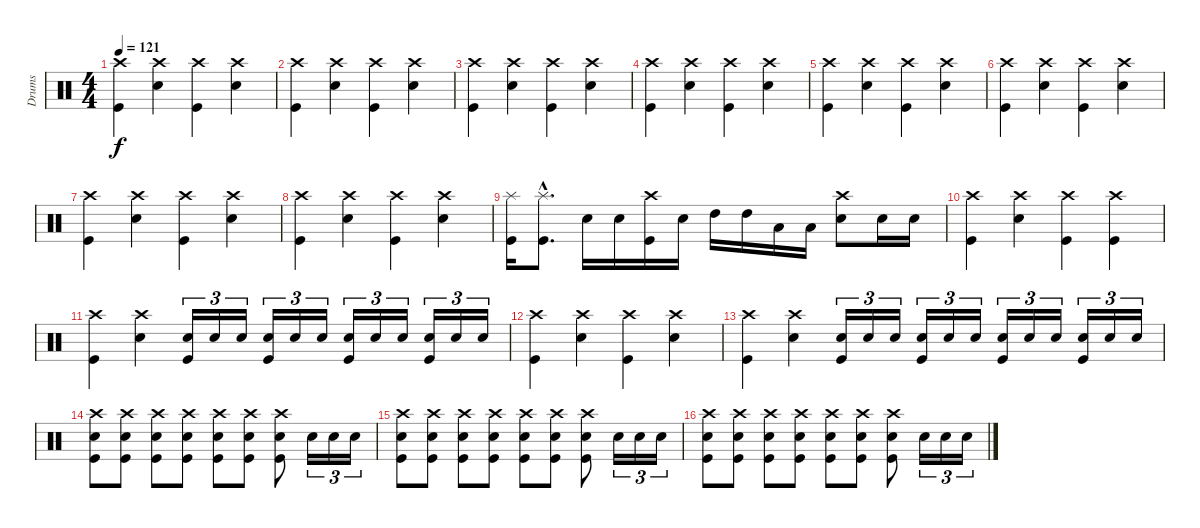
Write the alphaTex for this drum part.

\track ("Drums" "Drums") {instrument percussion}
\staff {score}
\articulation defaults
\ts (4 4)
\tempo 121
\clef neutral
\ks c
("Crash high (hit)" "Kick (hit)").4{dy f} ("Crash high (hit)" "Electric Snare (hit)").4 ("Crash high (hit)" "Kick (hit)").4 ("Crash high (hit)" "Electric Snare (hit)").4 |
("Crash high (hit)" "Kick (hit)").4 ("Crash high (hit)" "Electric Snare (hit)").4 ("Crash high (hit)" "Kick (hit)").4 ("Crash high (hit)" "Electric Snare (hit)").4 |
("Crash high (hit)" "Kick (hit)").4 ("Crash high (hit)" "Electric Snare (hit)").4 ("Crash high (hit)" "Kick (hit)").4 ("Crash high (hit)" "Electric Snare (hit)").4 |
("Crash high (hit)" "Kick (hit)").4 ("Crash high (hit)" "Electric Snare (hit)").4 ("Crash high (hit)" "Kick (hit)").4 ("Crash high (hit)" "Electric Snare (hit)").4 |
("Crash high (hit)" "Kick (hit)").4 ("Crash high (hit)" "Electric Snare (hit)").4 ("Crash high (hit)" "Kick (hit)").4 ("Crash high (hit)" "Electric Snare (hit)").4 |
("Crash high (hit)" "Kick (hit)").4 ("Crash high (hit)" "Electric Snare (hit)").4 ("Crash high (hit)" "Kick (hit)").4 ("Crash high (hit)" "Electric Snare (hit)").4 |
("Crash high (hit)" "Kick (hit)").4 ("Crash high (hit)" "Electric Snare (hit)").4 ("Crash high (hit)" "Kick (hit)").4 ("Crash high (hit)" "Electric Snare (hit)").4 |
("Crash high (hit)" "Kick (hit)").4 ("Crash high (hit)" "Electric Snare (hit)").4 ("Crash high (hit)" "Kick (hit)").4 ("Crash high (hit)" "Electric Snare (hit)").4 |
("Splash (hit)" "Kick (hit)").16 ("Splash (hit)"{hac} "Kick (hit)"{hac}).8{d} "Electric Snare (hit)".16 "Electric Snare (hit)".16 ("Crash high (hit)" "Kick (hit)").16 "Electric Snare (hit)".16 "High Tom (hit)".16 "High Tom (hit)".16 "Low Floor Tom (hit)".16 "Low Tom (hit)".16 ("Crash high (hit)" "Electric Snare (hit)").8 "Electric Snare (hit)".16 "Electric Snare (hit)".16 |
("Crash high (hit)" "Kick (hit)").4 ("Crash high (hit)" "Electric Snare (hit)").4 ("Crash high (hit)" "Kick (hit)").4 ("Crash high (hit)" "Kick (hit)").4 |
("Crash high (hit)" "Kick (hit)").4 ("Crash high (hit)" "Electric Snare (hit)").4 ("Electric Snare (hit)" "Kick (hit)").16{tu (3 2)} "Electric Snare (hit)".16{tu (3 2)} "Electric Snare (hit)".16{tu (3 2)} ("Electric Snare (hit)" "Kick (hit)").16{tu (3 2)} "Electric Snare (hit)".16{tu (3 2)} "Electric Snare (hit)".16{tu (3 2)} ("Electric Snare (hit)" "Kick (hit)").16{tu (3 2)} "Electric Snare (hit)".16{tu (3 2)} "Electric Snare (hit)".16{tu (3 2)} ("Electric Snare (hit)" "Kick (hit)").16{tu (3 2)} "Electric Snare (hit)".16{tu (3 2)} "Electric Snare (hit)".16{tu (3 2)} |
("Crash high (hit)" "Kick (hit)").4 ("Crash high (hit)" "Electric Snare (hit)").4 ("Crash high (hit)" "Kick (hit)").4 ("Crash high (hit)" "Electric Snare (hit)").4 |
("Crash high (hit)" "Kick (hit)").4 ("Crash high (hit)" "Electric Snare (hit)").4 ("Electric Snare (hit)" "Kick (hit)").16{tu (3 2)} "Electric Snare (hit)".16{tu (3 2)} "Electric Snare (hit)".16{tu (3 2)} ("Electric Snare (hit)" "Kick (hit)").16{tu (3 2)} "Electric Snare (hit)".16{tu (3 2)} "Electric Snare (hit)".16{tu (3 2)} ("Electric Snare (hit)" "Kick (hit)").16{tu (3 2)} "Electric Snare (hit)".16{tu (3 2)} "Electric Snare (hit)".16{tu (3 2)} ("Electric Snare (hit)" "Kick (hit)").16{tu (3 2)} "Electric Snare (hit)".16{tu (3 2)} "Electric Snare (hit)".16{tu (3 2)} |
("Crash high (hit)" "Electric Snare (hit)" "Kick (hit)").8 ("Crash high (hit)" "Electric Snare (hit)" "Kick (hit)").8 ("Crash high (hit)" "Electric Snare (hit)" "Kick (hit)").8 ("Crash high (hit)" "Electric Snare (hit)" "Kick (hit)").8 ("Crash high (hit)" "Electric Snare (hit)" "Kick (hit)").8 ("Crash high (hit)" "Electric Snare (hit)" "Kick (hit)").8 ("Crash high (hit)" "Electric Snare (hit)" "Kick (hit)").8 "Electric Snare (hit)".16{tu (3 2)} "Electric Snare (hit)".16{tu (3 2)} "Electric Snare (hit)".16{tu (3 2)} |
("Crash high (hit)" "Electric Snare (hit)" "Kick (hit)").8 ("Crash high (hit)" "Electric Snare (hit)" "Kick (hit)").8 ("Crash high (hit)" "Electric Snare (hit)" "Kick (hit)").8 ("Crash high (hit)" "Electric Snare (hit)" "Kick (hit)").8 ("Crash high (hit)" "Electric Snare (hit)" "Kick (hit)").8 ("Crash high (hit)" "Electric Snare (hit)" "Kick (hit)").8 ("Crash high (hit)" "Electric Snare (hit)" "Kick (hit)").8 "Electric Snare (hit)".16{tu (3 2)} "Electric Snare (hit)".16{tu (3 2)} "Electric Snare (hit)".16{tu (3 2)} |
("Crash high (hit)" "Electric Snare (hit)" "Kick (hit)").8 ("Crash high (hit)" "Electric Snare (hit)" "Kick (hit)").8 ("Crash high (hit)" "Electric Snare (hit)" "Kick (hit)").8 ("Crash high (hit)" "Electric Snare (hit)" "Kick (hit)").8 ("Crash high (hit)" "Electric Snare (hit)" "Kick (hit)").8 ("Crash high (hit)" "Electric Snare (hit)" "Kick (hit)").8 ("Crash high (hit)" "Electric Snare (hit)" "Kick (hit)").8 "Electric Snare (hit)".16{tu (3 2)} "Electric Snare (hit)".16{tu (3 2)} "Electric Snare (hit)".16{tu (3 2)}
